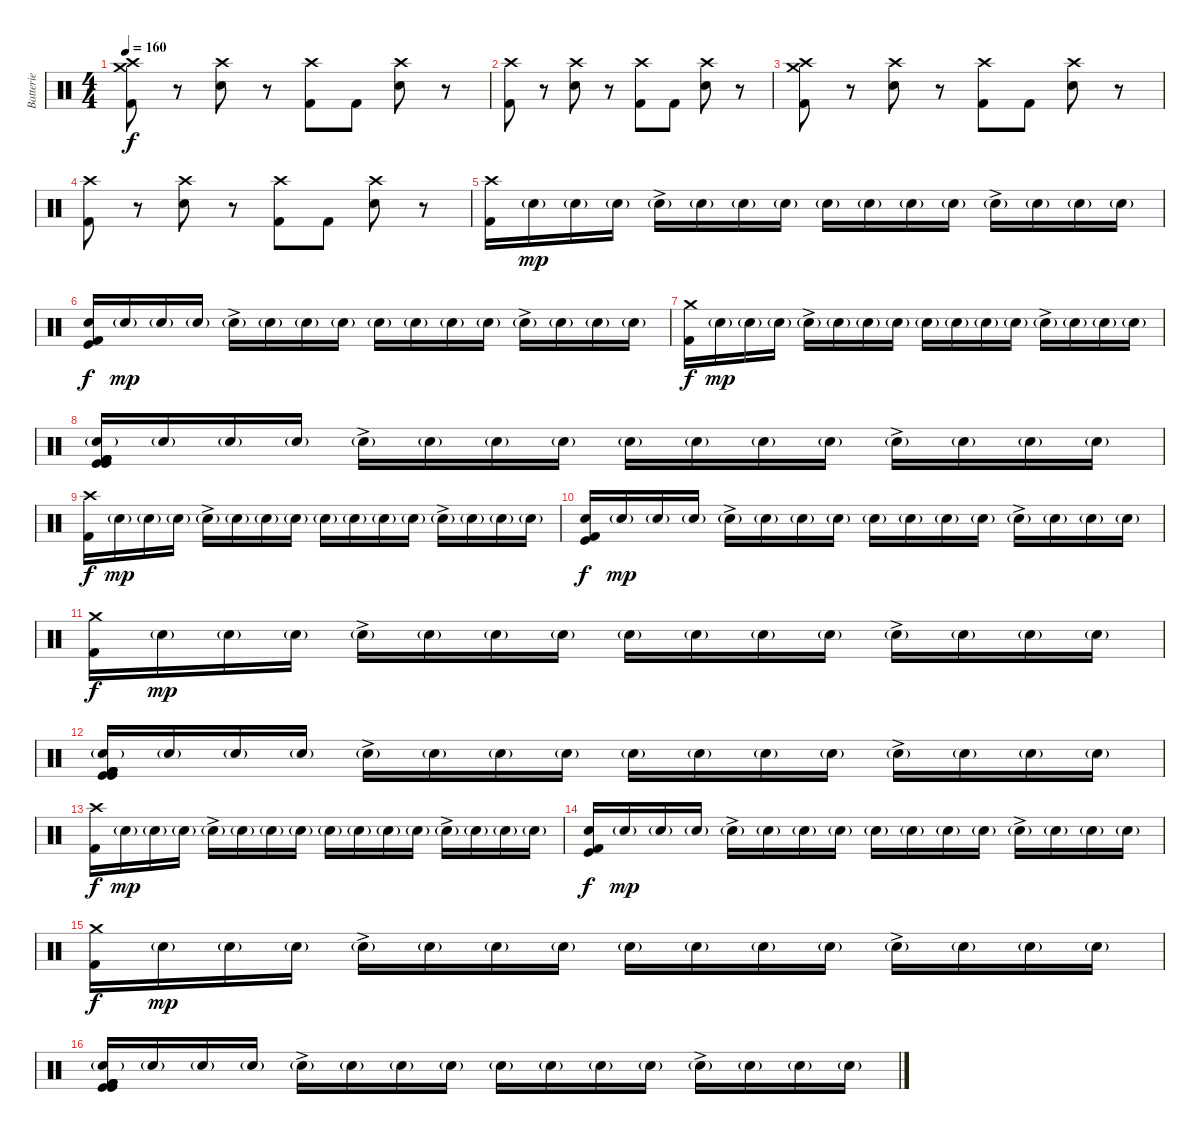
\track ("Batterie" "Batterie") {instrument percussion}
\staff {score}
\articulation defaults
\ts (4 4)
\tempo 160
\clef neutral
\ks c
("Crash high (hit)" "Crash medium (hit)" "Kick (hit) 2").8{dy f} r.8 ("Crash high (hit)" "Snare (hit) 2").8 r.8 ("Crash high (hit)" "Kick (hit) 2").8 "Kick (hit) 2".8 ("Crash high (hit)" "Snare (hit) 2").8 r.8 |
("Crash high (hit)" "Kick (hit) 2").8 r.8 ("Crash high (hit)" "Snare (hit) 2").8 r.8 ("Crash high (hit)" "Kick (hit) 2").8 "Kick (hit) 2".8 ("Crash high (hit)" "Snare (hit) 2").8 r.8 |
("Crash high (hit)" "Crash medium (hit)" "Kick (hit) 2").8 r.8 ("Crash high (hit)" "Snare (hit) 2").8 r.8 ("Crash high (hit)" "Kick (hit) 2").8 "Kick (hit) 2".8 ("Crash high (hit)" "Snare (hit) 2").8 r.8 |
("Crash high (hit)" "Kick (hit) 2").8 r.8 ("Crash high (hit)" "Snare (hit) 2").8 r.8 ("Crash high (hit)" "Kick (hit) 2").8 "Kick (hit) 2".8 ("Crash high (hit)" "Snare (hit) 2").8 r.8 |
("Crash high (hit)" "Kick (hit) 2").16 "Snare (hit) 2"{g}.16{dy mp} "Snare (hit) 2"{g}.16 "Snare (hit) 2"{g}.16 "Snare (hit) 2"{g ac}.16 "Snare (hit) 2"{g}.16 "Snare (hit) 2"{g}.16 "Snare (hit) 2"{g}.16 "Snare (hit) 2"{g}.16 "Snare (hit) 2"{g}.16 "Snare (hit) 2"{g}.16 "Snare (hit) 2"{g}.16 "Snare (hit) 2"{g ac}.16 "Snare (hit) 2"{g}.16 "Snare (hit) 2"{g}.16 "Snare (hit) 2"{g}.16 |
("Snare (hit) 2" "Kick (hit)" "Kick (hit) 2").16{dy f} "Snare (hit) 2"{g}.16{dy mp} "Snare (hit) 2"{g}.16 "Snare (hit) 2"{g}.16 "Snare (hit) 2"{g ac}.16 "Snare (hit) 2"{g}.16 "Snare (hit) 2"{g}.16 "Snare (hit) 2"{g}.16 "Snare (hit) 2"{g}.16 "Snare (hit) 2"{g}.16 "Snare (hit) 2"{g}.16 "Snare (hit) 2"{g}.16 "Snare (hit) 2"{g ac}.16 "Snare (hit) 2"{g}.16 "Snare (hit) 2"{g}.16 "Snare (hit) 2"{g}.16 |
("Crash medium (hit)" "Kick (hit) 2").16{dy f} "Snare (hit) 2"{g}.16{dy mp} "Snare (hit) 2"{g}.16 "Snare (hit) 2"{g}.16 "Snare (hit) 2"{g ac}.16 "Snare (hit) 2"{g}.16 "Snare (hit) 2"{g}.16 "Snare (hit) 2"{g}.16 "Snare (hit) 2"{g}.16 "Snare (hit) 2"{g}.16 "Snare (hit) 2"{g}.16 "Snare (hit) 2"{g}.16 "Snare (hit) 2"{g ac}.16 "Snare (hit) 2"{g}.16 "Snare (hit) 2"{g}.16 "Snare (hit) 2"{g}.16 |
("Kick (hit) 2" "Kick (hit)" "Kick (hit) 2" "Snare (hit) 2"{g} "Kick (hit)" "Kick (hit) 2").16 "Snare (hit) 2"{g}.16 "Snare (hit) 2"{g}.16 "Snare (hit) 2"{g}.16 "Snare (hit) 2"{g ac}.16 "Snare (hit) 2"{g}.16 "Snare (hit) 2"{g}.16 "Snare (hit) 2"{g}.16 "Snare (hit) 2"{g}.16 "Snare (hit) 2"{g}.16 "Snare (hit) 2"{g}.16 "Snare (hit) 2"{g}.16 "Snare (hit) 2"{g ac}.16 "Snare (hit) 2"{g}.16 "Snare (hit) 2"{g}.16 "Snare (hit) 2"{g}.16 |
("Crash high (hit)" "Kick (hit) 2").16{dy f} "Snare (hit) 2"{g}.16{dy mp} "Snare (hit) 2"{g}.16 "Snare (hit) 2"{g}.16 "Snare (hit) 2"{g ac}.16 "Snare (hit) 2"{g}.16 "Snare (hit) 2"{g}.16 "Snare (hit) 2"{g}.16 "Snare (hit) 2"{g}.16 "Snare (hit) 2"{g}.16 "Snare (hit) 2"{g}.16 "Snare (hit) 2"{g}.16 "Snare (hit) 2"{g ac}.16 "Snare (hit) 2"{g}.16 "Snare (hit) 2"{g}.16 "Snare (hit) 2"{g}.16 |
("Snare (hit) 2" "Kick (hit)" "Kick (hit) 2").16{dy f} "Snare (hit) 2"{g}.16{dy mp} "Snare (hit) 2"{g}.16 "Snare (hit) 2"{g}.16 "Snare (hit) 2"{g ac}.16 "Snare (hit) 2"{g}.16 "Snare (hit) 2"{g}.16 "Snare (hit) 2"{g}.16 "Snare (hit) 2"{g}.16 "Snare (hit) 2"{g}.16 "Snare (hit) 2"{g}.16 "Snare (hit) 2"{g}.16 "Snare (hit) 2"{g ac}.16 "Snare (hit) 2"{g}.16 "Snare (hit) 2"{g}.16 "Snare (hit) 2"{g}.16 |
("Crash medium (hit)" "Kick (hit) 2").16{dy f} "Snare (hit) 2"{g}.16{dy mp} "Snare (hit) 2"{g}.16 "Snare (hit) 2"{g}.16 "Snare (hit) 2"{g ac}.16 "Snare (hit) 2"{g}.16 "Snare (hit) 2"{g}.16 "Snare (hit) 2"{g}.16 "Snare (hit) 2"{g}.16 "Snare (hit) 2"{g}.16 "Snare (hit) 2"{g}.16 "Snare (hit) 2"{g}.16 "Snare (hit) 2"{g ac}.16 "Snare (hit) 2"{g}.16 "Snare (hit) 2"{g}.16 "Snare (hit) 2"{g}.16 |
("Kick (hit) 2" "Kick (hit)" "Kick (hit) 2" "Snare (hit) 2"{g} "Kick (hit)" "Kick (hit) 2").16 "Snare (hit) 2"{g}.16 "Snare (hit) 2"{g}.16 "Snare (hit) 2"{g}.16 "Snare (hit) 2"{g ac}.16 "Snare (hit) 2"{g}.16 "Snare (hit) 2"{g}.16 "Snare (hit) 2"{g}.16 "Snare (hit) 2"{g}.16 "Snare (hit) 2"{g}.16 "Snare (hit) 2"{g}.16 "Snare (hit) 2"{g}.16 "Snare (hit) 2"{g ac}.16 "Snare (hit) 2"{g}.16 "Snare (hit) 2"{g}.16 "Snare (hit) 2"{g}.16 |
("Crash high (hit)" "Kick (hit) 2").16{dy f} "Snare (hit) 2"{g}.16{dy mp} "Snare (hit) 2"{g}.16 "Snare (hit) 2"{g}.16 "Snare (hit) 2"{g ac}.16 "Snare (hit) 2"{g}.16 "Snare (hit) 2"{g}.16 "Snare (hit) 2"{g}.16 "Snare (hit) 2"{g}.16 "Snare (hit) 2"{g}.16 "Snare (hit) 2"{g}.16 "Snare (hit) 2"{g}.16 "Snare (hit) 2"{g ac}.16 "Snare (hit) 2"{g}.16 "Snare (hit) 2"{g}.16 "Snare (hit) 2"{g}.16 |
("Snare (hit) 2" "Kick (hit)" "Kick (hit) 2").16{dy f} "Snare (hit) 2"{g}.16{dy mp} "Snare (hit) 2"{g}.16 "Snare (hit) 2"{g}.16 "Snare (hit) 2"{g ac}.16 "Snare (hit) 2"{g}.16 "Snare (hit) 2"{g}.16 "Snare (hit) 2"{g}.16 "Snare (hit) 2"{g}.16 "Snare (hit) 2"{g}.16 "Snare (hit) 2"{g}.16 "Snare (hit) 2"{g}.16 "Snare (hit) 2"{g ac}.16 "Snare (hit) 2"{g}.16 "Snare (hit) 2"{g}.16 "Snare (hit) 2"{g}.16 |
("Crash medium (hit)" "Kick (hit) 2").16{dy f} "Snare (hit) 2"{g}.16{dy mp} "Snare (hit) 2"{g}.16 "Snare (hit) 2"{g}.16 "Snare (hit) 2"{g ac}.16 "Snare (hit) 2"{g}.16 "Snare (hit) 2"{g}.16 "Snare (hit) 2"{g}.16 "Snare (hit) 2"{g}.16 "Snare (hit) 2"{g}.16 "Snare (hit) 2"{g}.16 "Snare (hit) 2"{g}.16 "Snare (hit) 2"{g ac}.16 "Snare (hit) 2"{g}.16 "Snare (hit) 2"{g}.16 "Snare (hit) 2"{g}.16 |
("Kick (hit) 2" "Kick (hit)" "Kick (hit) 2" "Snare (hit) 2"{g} "Kick (hit)" "Kick (hit) 2").16 "Snare (hit) 2"{g}.16 "Snare (hit) 2"{g}.16 "Snare (hit) 2"{g}.16 "Snare (hit) 2"{g ac}.16 "Snare (hit) 2"{g}.16 "Snare (hit) 2"{g}.16 "Snare (hit) 2"{g}.16 "Snare (hit) 2"{g}.16 "Snare (hit) 2"{g}.16 "Snare (hit) 2"{g}.16 "Snare (hit) 2"{g}.16 "Snare (hit) 2"{g ac}.16 "Snare (hit) 2"{g}.16 "Snare (hit) 2"{g}.16 "Snare (hit) 2"{g}.16
